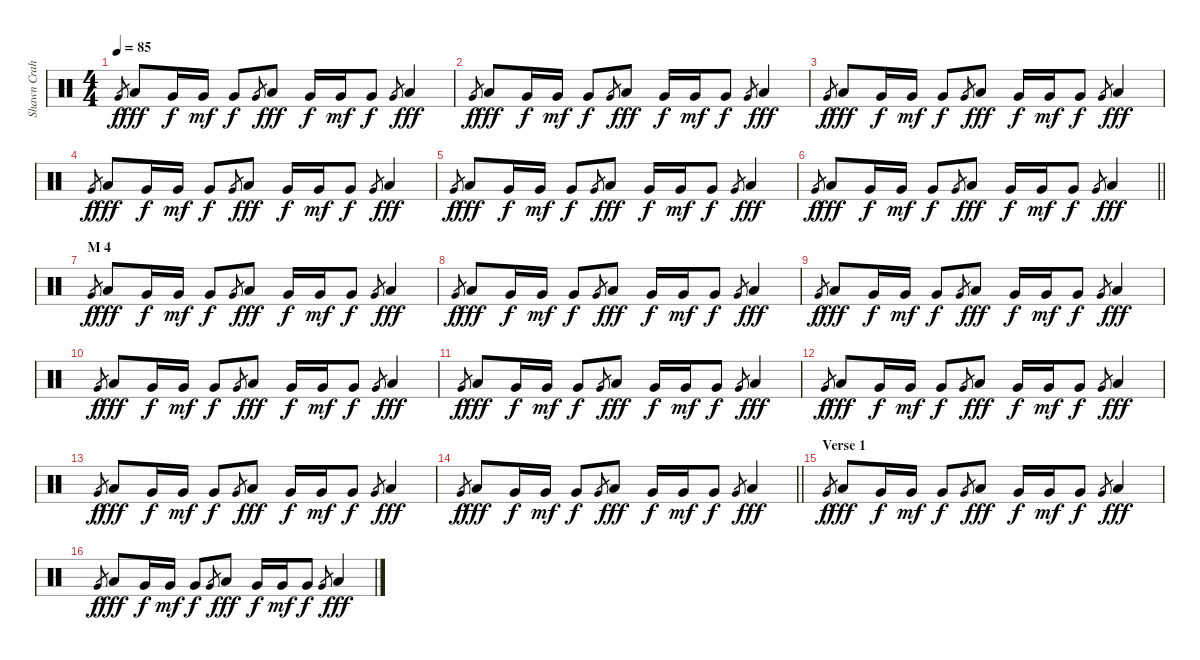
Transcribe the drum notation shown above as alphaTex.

\track ("Shawn Crahan" "Shawn Crah") {instrument percussion}
\staff {score}
\articulation defaults
\ts (4 4)
\tempo 85
\clef neutral
\ks c "Very Low Tom (hit)".8{gr dy f} "Low Tom (hit)".8{dy fff} "Very Low Tom (hit)".16{dy f} "Very Low Tom (hit)".16{dy mf} "Very Low Tom (hit)".8{dy f} "Very Low Tom (hit)".8{gr} "Low Tom (hit)".8{dy fff} "Very Low Tom (hit)".16{dy f} "Very Low Tom (hit)".16{dy mf} "Very Low Tom (hit)".8{dy f} "Very Low Tom (hit)".8{gr} "Low Tom (hit)".4{dy fff}
|
"Very Low Tom (hit)".8{gr dy f} "Low Tom (hit)".8{dy fff} "Very Low Tom (hit)".16{dy f} "Very Low Tom (hit)".16{dy mf} "Very Low Tom (hit)".8{dy f} "Very Low Tom (hit)".8{gr} "Low Tom (hit)".8{dy fff} "Very Low Tom (hit)".16{dy f} "Very Low Tom (hit)".16{dy mf} "Very Low Tom (hit)".8{dy f} "Very Low Tom (hit)".8{gr} "Low Tom (hit)".4{dy fff} |
"Very Low Tom (hit)".8{gr dy f} "Low Tom (hit)".8{dy fff} "Very Low Tom (hit)".16{dy f} "Very Low Tom (hit)".16{dy mf} "Very Low Tom (hit)".8{dy f} "Very Low Tom (hit)".8{gr} "Low Tom (hit)".8{dy fff} "Very Low Tom (hit)".16{dy f} "Very Low Tom (hit)".16{dy mf} "Very Low Tom (hit)".8{dy f} "Very Low Tom (hit)".8{gr} "Low Tom (hit)".4{dy fff} |
"Very Low Tom (hit)".8{gr dy f} "Low Tom (hit)".8{dy fff} "Very Low Tom (hit)".16{dy f} "Very Low Tom (hit)".16{dy mf} "Very Low Tom (hit)".8{dy f} "Very Low Tom (hit)".8{gr} "Low Tom (hit)".8{dy fff} "Very Low Tom (hit)".16{dy f} "Very Low Tom (hit)".16{dy mf} "Very Low Tom (hit)".8{dy f} "Very Low Tom (hit)".8{gr} "Low Tom (hit)".4{dy fff} |
"Very Low Tom (hit)".8{gr dy f} "Low Tom (hit)".8{dy fff} "Very Low Tom (hit)".16{dy f} "Very Low Tom (hit)".16{dy mf} "Very Low Tom (hit)".8{dy f} "Very Low Tom (hit)".8{gr} "Low Tom (hit)".8{dy fff} "Very Low Tom (hit)".16{dy f} "Very Low Tom (hit)".16{dy mf} "Very Low Tom (hit)".8{dy f} "Very Low Tom (hit)".8{gr} "Low Tom (hit)".4{dy fff} |
\barLineRight lightlight "Very Low Tom (hit)".8{gr dy f} "Low Tom (hit)".8{dy fff} "Very Low Tom (hit)".16{dy f} "Very Low Tom (hit)".16{dy mf} "Very Low Tom (hit)".8{dy f} "Very Low Tom (hit)".8{gr} "Low Tom (hit)".8{dy fff} "Very Low Tom (hit)".16{dy f} "Very Low Tom (hit)".16{dy mf} "Very Low Tom (hit)".8{dy f} "Very Low Tom (hit)".8{gr} "Low Tom (hit)".4{dy fff}
|
\section ("" "M 4")
"Very Low Tom (hit)".8{gr dy f} "Low Tom (hit)".8{dy fff} "Very Low Tom (hit)".16{dy f} "Very Low Tom (hit)".16{dy mf} "Very Low Tom (hit)".8{dy f} "Very Low Tom (hit)".8{gr} "Low Tom (hit)".8{dy fff} "Very Low Tom (hit)".16{dy f} "Very Low Tom (hit)".16{dy mf} "Very Low Tom (hit)".8{dy f} "Very Low Tom (hit)".8{gr} "Low Tom (hit)".4{dy fff} |
"Very Low Tom (hit)".8{gr dy f} "Low Tom (hit)".8{dy fff} "Very Low Tom (hit)".16{dy f} "Very Low Tom (hit)".16{dy mf} "Very Low Tom (hit)".8{dy f} "Very Low Tom (hit)".8{gr} "Low Tom (hit)".8{dy fff} "Very Low Tom (hit)".16{dy f} "Very Low Tom (hit)".16{dy mf} "Very Low Tom (hit)".8{dy f} "Very Low Tom (hit)".8{gr} "Low Tom (hit)".4{dy fff} |
"Very Low Tom (hit)".8{gr dy f} "Low Tom (hit)".8{dy fff} "Very Low Tom (hit)".16{dy f} "Very Low Tom (hit)".16{dy mf} "Very Low Tom (hit)".8{dy f} "Very Low Tom (hit)".8{gr} "Low Tom (hit)".8{dy fff} "Very Low Tom (hit)".16{dy f} "Very Low Tom (hit)".16{dy mf} "Very Low Tom (hit)".8{dy f} "Very Low Tom (hit)".8{gr} "Low Tom (hit)".4{dy fff} |
"Very Low Tom (hit)".8{gr dy f} "Low Tom (hit)".8{dy fff} "Very Low Tom (hit)".16{dy f} "Very Low Tom (hit)".16{dy mf} "Very Low Tom (hit)".8{dy f} "Very Low Tom (hit)".8{gr} "Low Tom (hit)".8{dy fff} "Very Low Tom (hit)".16{dy f} "Very Low Tom (hit)".16{dy mf} "Very Low Tom (hit)".8{dy f} "Very Low Tom (hit)".8{gr} "Low Tom (hit)".4{dy fff} |
"Very Low Tom (hit)".8{gr dy f} "Low Tom (hit)".8{dy fff} "Very Low Tom (hit)".16{dy f} "Very Low Tom (hit)".16{dy mf} "Very Low Tom (hit)".8{dy f} "Very Low Tom (hit)".8{gr} "Low Tom (hit)".8{dy fff} "Very Low Tom (hit)".16{dy f} "Very Low Tom (hit)".16{dy mf} "Very Low Tom (hit)".8{dy f} "Very Low Tom (hit)".8{gr} "Low Tom (hit)".4{dy fff} |
"Very Low Tom (hit)".8{gr dy f} "Low Tom (hit)".8{dy fff} "Very Low Tom (hit)".16{dy f} "Very Low Tom (hit)".16{dy mf} "Very Low Tom (hit)".8{dy f} "Very Low Tom (hit)".8{gr} "Low Tom (hit)".8{dy fff} "Very Low Tom (hit)".16{dy f} "Very Low Tom (hit)".16{dy mf} "Very Low Tom (hit)".8{dy f} "Very Low Tom (hit)".8{gr} "Low Tom (hit)".4{dy fff} |
"Very Low Tom (hit)".8{gr dy f} "Low Tom (hit)".8{dy fff} "Very Low Tom (hit)".16{dy f} "Very Low Tom (hit)".16{dy mf} "Very Low Tom (hit)".8{dy f} "Very Low Tom (hit)".8{gr} "Low Tom (hit)".8{dy fff} "Very Low Tom (hit)".16{dy f} "Very Low Tom (hit)".16{dy mf} "Very Low Tom (hit)".8{dy f} "Very Low Tom (hit)".8{gr} "Low Tom (hit)".4{dy fff} |
\barLineRight lightlight "Very Low Tom (hit)".8{gr dy f} "Low Tom (hit)".8{dy fff} "Very Low Tom (hit)".16{dy f} "Very Low Tom (hit)".16{dy mf} "Very Low Tom (hit)".8{dy f} "Very Low Tom (hit)".8{gr} "Low Tom (hit)".8{dy fff} "Very Low Tom (hit)".16{dy f} "Very Low Tom (hit)".16{dy mf} "Very Low Tom (hit)".8{dy f} "Very Low Tom (hit)".8{gr} "Low Tom (hit)".4{dy fff}
|
\section ("" "Verse 1")
"Very Low Tom (hit)".8{gr dy f} "Low Tom (hit)".8{dy fff} "Very Low Tom (hit)".16{dy f} "Very Low Tom (hit)".16{dy mf} "Very Low Tom (hit)".8{dy f} "Very Low Tom (hit)".8{gr} "Low Tom (hit)".8{dy fff} "Very Low Tom (hit)".16{dy f} "Very Low Tom (hit)".16{dy mf} "Very Low Tom (hit)".8{dy f} "Very Low Tom (hit)".8{gr} "Low Tom (hit)".4{dy fff} |
"Very Low Tom (hit)".8{gr dy f} "Low Tom (hit)".8{dy fff} "Very Low Tom (hit)".16{dy f} "Very Low Tom (hit)".16{dy mf} "Very Low Tom (hit)".8{dy f} "Very Low Tom (hit)".8{gr} "Low Tom (hit)".8{dy fff} "Very Low Tom (hit)".16{dy f} "Very Low Tom (hit)".16{dy mf} "Very Low Tom (hit)".8{dy f} "Very Low Tom (hit)".8{gr} "Low Tom (hit)".4{dy fff}
